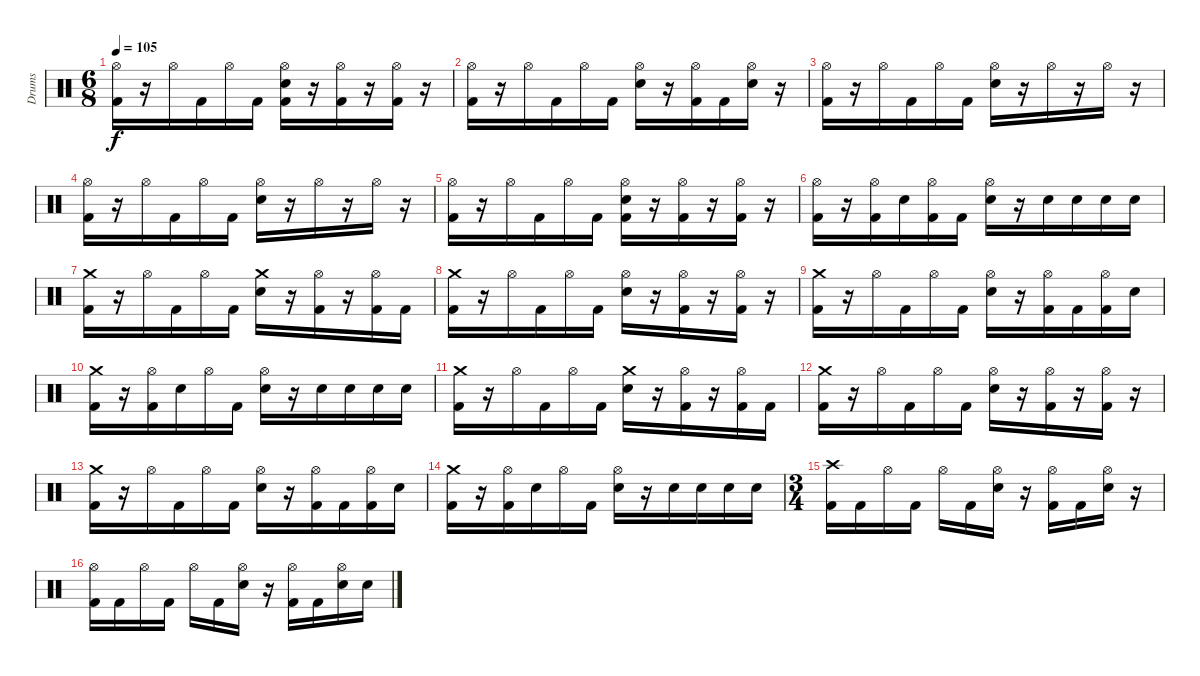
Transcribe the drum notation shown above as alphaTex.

\track ("Drums" "Drums") {instrument percussion}
\staff {score}
\articulation defaults
\ts (6 8)
\tempo 105
\clef neutral
\ks c
("Hi-Hat (open)" "Kick (hit) 2").16{dy f} r.16 "Hi-Hat (open)".16 "Kick (hit) 2".16 "Hi-Hat (open)".16 "Kick (hit) 2".16 ("Hi-Hat (open)" "Electric Snare (hit)" "Kick (hit) 2").16 r.16 ("Hi-Hat (open)" "Kick (hit) 2").16 r.16 ("Hi-Hat (open)" "Kick (hit) 2").16 r.16 |
("Hi-Hat (open)" "Kick (hit) 2").16 r.16 "Hi-Hat (open)".16 "Kick (hit) 2".16 "Hi-Hat (open)".16 "Kick (hit) 2".16 ("Hi-Hat (open)" "Electric Snare (hit)").16 r.16 ("Hi-Hat (open)" "Kick (hit) 2").16 "Kick (hit) 2".16 ("Hi-Hat (open)" "Electric Snare (hit)").16 r.16 |
("Hi-Hat (open)" "Kick (hit) 2").16 r.16 "Hi-Hat (open)".16 "Kick (hit) 2".16 "Hi-Hat (open)".16 "Kick (hit) 2".16 ("Hi-Hat (open)" "Electric Snare (hit)").16 r.16 "Hi-Hat (open)".16 r.16 "Hi-Hat (open)".16 r.16 |
("Hi-Hat (open)" "Kick (hit) 2").16 r.16 "Hi-Hat (open)".16 "Kick (hit) 2".16 "Hi-Hat (open)".16 "Kick (hit) 2".16 ("Hi-Hat (open)" "Electric Snare (hit)").16 r.16 "Hi-Hat (open)".16 r.16 "Hi-Hat (open)".16 r.16 |
("Hi-Hat (open)" "Kick (hit) 2").16 r.16 "Hi-Hat (open)".16 "Kick (hit) 2".16 "Hi-Hat (open)".16 "Kick (hit) 2".16 ("Hi-Hat (open)" "Electric Snare (hit)" "Kick (hit) 2").16 r.16 ("Hi-Hat (open)" "Kick (hit) 2").16 r.16 ("Hi-Hat (open)" "Kick (hit) 2").16 r.16 |
("Hi-Hat (open)" "Kick (hit) 2").16 r.16 ("Hi-Hat (open)" "Kick (hit) 2").16 "Electric Snare (hit)".16 ("Hi-Hat (open)" "Kick (hit) 2").16 "Kick (hit) 2".16 ("Hi-Hat (open)" "Electric Snare (hit)").16 r.16 "Electric Snare (hit)".16 "Electric Snare (hit)".16 "Electric Snare (hit)".16 "Electric Snare (hit)".16 |
("Crash medium (hit)" "Kick (hit) 2").16 r.16 "Hi-Hat (open)".16 "Kick (hit) 2".16 "Hi-Hat (open)".16 "Kick (hit) 2".16 ("Crash medium (hit)" "Electric Snare (hit)").16 r.16 ("Hi-Hat (open)" "Kick (hit) 2").16 r.16 ("Hi-Hat (open)" "Kick (hit) 2").16 "Kick (hit) 2".16 |
("Crash medium (hit)" "Kick (hit) 2").16 r.16 "Hi-Hat (open)".16 "Kick (hit) 2".16 "Hi-Hat (open)".16 "Kick (hit) 2".16 ("Hi-Hat (open)" "Electric Snare (hit)").16 r.16 ("Hi-Hat (open)" "Kick (hit) 2").16 r.16 ("Hi-Hat (open)" "Kick (hit) 2").16 r.16 |
("Crash medium (hit)" "Kick (hit) 2").16 r.16 "Hi-Hat (open)".16 "Kick (hit) 2".16 "Hi-Hat (open)".16 "Kick (hit) 2".16 ("Hi-Hat (open)" "Electric Snare (hit)").16 r.16 ("Hi-Hat (open)" "Kick (hit) 2").16 "Kick (hit) 2".16 ("Hi-Hat (open)" "Kick (hit) 2").16 "Electric Snare (hit)".16 |
("Crash medium (hit)" "Kick (hit) 2").16 r.16 ("Hi-Hat (open)" "Kick (hit) 2").16 "Electric Snare (hit)".16 "Hi-Hat (open)".16 "Kick (hit) 2".16 ("Hi-Hat (open)" "Electric Snare (hit)").16 r.16 "Electric Snare (hit)".16 "Electric Snare (hit)".16 "Electric Snare (hit)".16 "Electric Snare (hit)".16 |
("Crash medium (hit)" "Kick (hit) 2").16 r.16 "Hi-Hat (open)".16 "Kick (hit) 2".16 "Hi-Hat (open)".16 "Kick (hit) 2".16 ("Crash medium (hit)" "Electric Snare (hit)").16 r.16 ("Hi-Hat (open)" "Kick (hit) 2").16 r.16 ("Hi-Hat (open)" "Kick (hit) 2").16 "Kick (hit) 2".16 |
("Crash medium (hit)" "Kick (hit) 2").16 r.16 "Hi-Hat (open)".16 "Kick (hit) 2".16 "Hi-Hat (open)".16 "Kick (hit) 2".16 ("Hi-Hat (open)" "Electric Snare (hit)").16 r.16 ("Hi-Hat (open)" "Kick (hit) 2").16 r.16 ("Hi-Hat (open)" "Kick (hit) 2").16 r.16 |
("Crash medium (hit)" "Kick (hit) 2").16 r.16 "Hi-Hat (open)".16 "Kick (hit) 2".16 "Hi-Hat (open)".16 "Kick (hit) 2".16 ("Hi-Hat (open)" "Electric Snare (hit)").16 r.16 ("Hi-Hat (open)" "Kick (hit) 2").16 "Kick (hit) 2".16 ("Hi-Hat (open)" "Kick (hit) 2").16 "Electric Snare (hit)".16 |
("Crash medium (hit)" "Kick (hit) 2").16 r.16 ("Hi-Hat (open)" "Kick (hit) 2").16 "Electric Snare (hit)".16 "Hi-Hat (open)".16 "Kick (hit) 2".16 ("Hi-Hat (open)" "Electric Snare (hit)").16 r.16 "Electric Snare (hit)".16 "Electric Snare (hit)".16 "Electric Snare (hit)".16 "Electric Snare (hit)".16 |
\ts (3 4)
("Crash high (hit)" "Kick (hit) 2").16 "Kick (hit) 2".16 "Hi-Hat (open)".16 "Kick (hit) 2".16 "Hi-Hat (open)".16 "Kick (hit) 2".16 ("Hi-Hat (open)" "Electric Snare (hit)").16 r.16 ("Hi-Hat (open)" "Kick (hit) 2").16 "Kick (hit) 2".16 ("Hi-Hat (open)" "Electric Snare (hit)").16 r.16 |
("Hi-Hat (open)" "Kick (hit) 2").16 "Kick (hit) 2".16 "Hi-Hat (open)".16 "Kick (hit) 2".16 "Hi-Hat (open)".16 "Kick (hit) 2".16 ("Hi-Hat (open)" "Electric Snare (hit)").16 r.16 ("Hi-Hat (open)" "Kick (hit) 2").16 "Kick (hit) 2".16 ("Hi-Hat (open)" "Electric Snare (hit)").16 "Electric Snare (hit)".16
